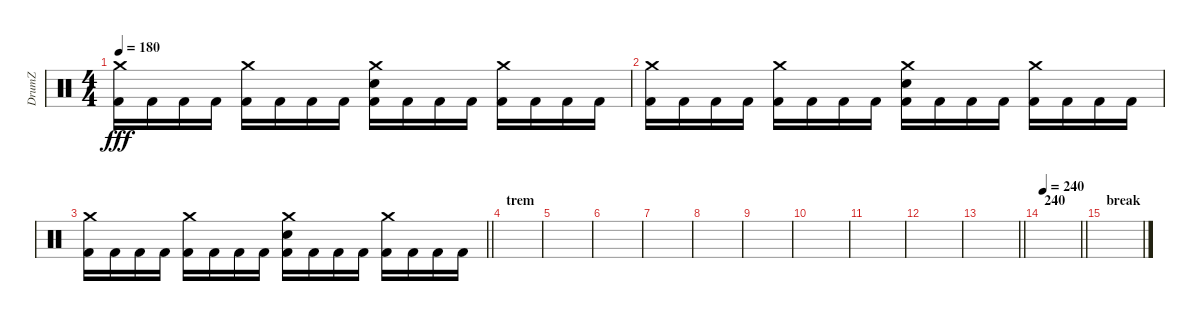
\track ("DrumZ" "DrumZ") {instrument percussion}
\staff {score}
\articulation defaults
\ts (4 4)
\tempo 180
\clef neutral
\ks c
("Crash medium (hit)" "Kick (hit) 2").16{dy fff} "Kick (hit) 2".16 "Kick (hit) 2".16 "Kick (hit) 2".16 ("Crash medium (hit)" "Kick (hit) 2").16 "Kick (hit) 2".16 "Kick (hit) 2".16 "Kick (hit) 2".16 ("Crash medium (hit)" "Electric Snare (hit)" "Kick (hit) 2").16 "Kick (hit) 2".16 "Kick (hit) 2".16 "Kick (hit) 2".16 ("Crash medium (hit)" "Kick (hit) 2").16 "Kick (hit) 2".16 "Kick (hit) 2".16 "Kick (hit) 2".16 |
("Crash medium (hit)" "Kick (hit) 2").16 "Kick (hit) 2".16 "Kick (hit) 2".16 "Kick (hit) 2".16 ("Crash medium (hit)" "Kick (hit) 2").16 "Kick (hit) 2".16 "Kick (hit) 2".16 "Kick (hit) 2".16 ("Crash medium (hit)" "Electric Snare (hit)" "Kick (hit) 2").16 "Kick (hit) 2".16 "Kick (hit) 2".16 "Kick (hit) 2".16 ("Crash medium (hit)" "Kick (hit) 2").16 "Kick (hit) 2".16 "Kick (hit) 2".16 "Kick (hit) 2".16 |
\barLineRight lightlight
("Crash medium (hit)" "Kick (hit) 2").16 "Kick (hit) 2".16 "Kick (hit) 2".16 "Kick (hit) 2".16 ("Crash medium (hit)" "Kick (hit) 2").16 "Kick (hit) 2".16 "Kick (hit) 2".16 "Kick (hit) 2".16 ("Crash medium (hit)" "Electric Snare (hit)" "Kick (hit) 2").16 "Kick (hit) 2".16 "Kick (hit) 2".16 "Kick (hit) 2".16 ("Crash medium (hit)" "Kick (hit) 2").16 "Kick (hit) 2".16 "Kick (hit) 2".16 "Kick (hit) 2".16 |
\section ("" "trem")
|
|
|
|
|
|
|
|
|
\barLineRight lightlight
|
\section ("" "240")
\tempo 240
\barLineRight lightlight
|
\section ("" "break")
